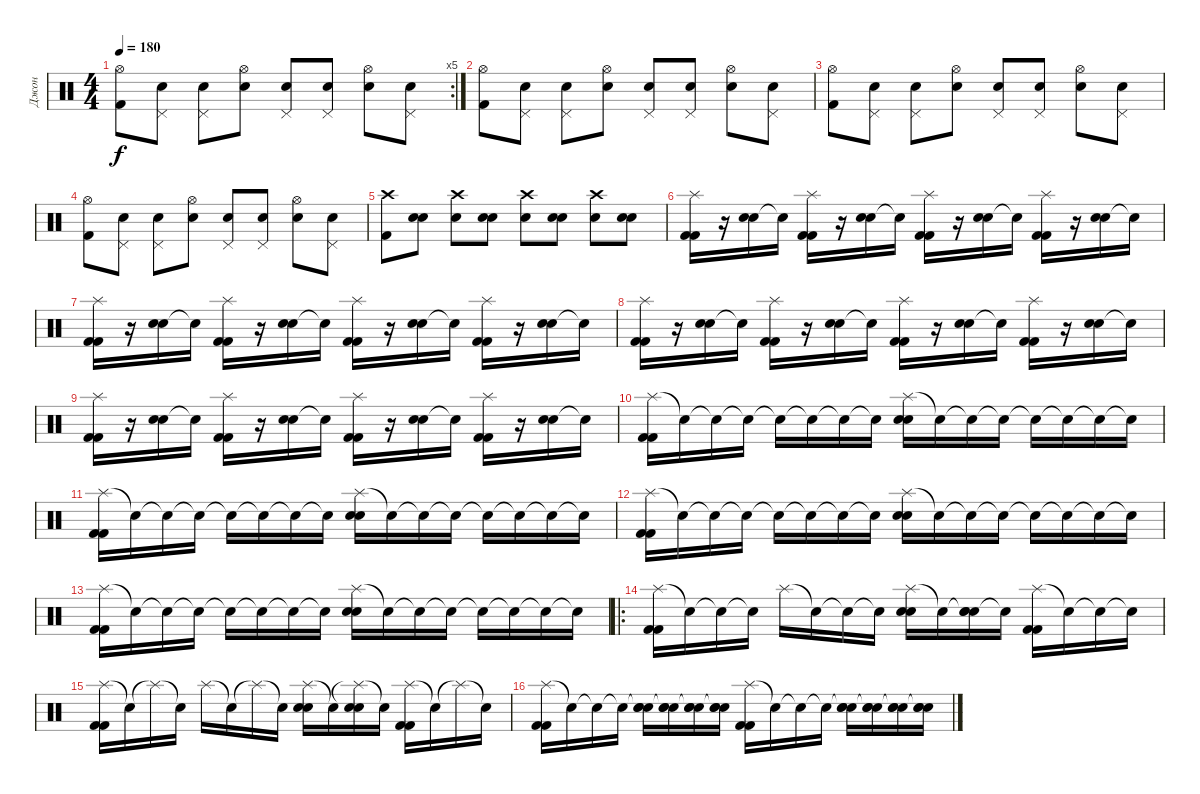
\track ("Джон" "Джон") {instrument percussion}
\staff {score}
\articulation defaults
\rc 5
\ts (4 4)
\tempo 180
\clef neutral
\ks c
("Kick (hit) 2" "Hi-Hat (open)").8{dy f} ("Snare (hit)" "Pedal Hi-Hat (hit)").8 ("Snare (hit)" "Pedal Hi-Hat (hit)").8 ("Snare (hit)" "Hi-Hat (open)").8 ("Electric Snare (hit)" "Pedal Hi-Hat (hit)").8 ("Snare (hit)" "Pedal Hi-Hat (hit)").8 ("Snare (hit)" "Hi-Hat (open)").8 ("Snare (hit)" "Pedal Hi-Hat (hit)").8 |
("Kick (hit) 2" "Hi-Hat (open)").8 ("Snare (hit)" "Pedal Hi-Hat (hit)").8 ("Snare (hit)" "Pedal Hi-Hat (hit)").8 ("Snare (hit)" "Hi-Hat (open)").8 ("Electric Snare (hit)" "Pedal Hi-Hat (hit)").8 ("Snare (hit)" "Pedal Hi-Hat (hit)").8 ("Snare (hit)" "Hi-Hat (open)").8 ("Snare (hit)" "Pedal Hi-Hat (hit)").8 |
("Kick (hit) 2" "Hi-Hat (open)").8 ("Snare (hit)" "Pedal Hi-Hat (hit)").8 ("Snare (hit)" "Pedal Hi-Hat (hit)").8 ("Snare (hit)" "Hi-Hat (open)").8 ("Electric Snare (hit)" "Pedal Hi-Hat (hit)").8 ("Snare (hit)" "Pedal Hi-Hat (hit)").8 ("Snare (hit)" "Hi-Hat (open)").8 ("Snare (hit)" "Pedal Hi-Hat (hit)").8 |
("Kick (hit) 2" "Hi-Hat (open)").8 ("Snare (hit)" "Pedal Hi-Hat (hit)").8 ("Snare (hit)" "Pedal Hi-Hat (hit)").8 ("Snare (hit)" "Hi-Hat (open)").8 ("Electric Snare (hit)" "Pedal Hi-Hat (hit)").8 ("Snare (hit)" "Pedal Hi-Hat (hit)").8 ("Snare (hit)" "Hi-Hat (open)").8 ("Snare (hit)" "Pedal Hi-Hat (hit)").8 |
("Kick (hit) 2" "Crash high (hit)").8 ("Snare (hit)" "Snare (hit)").8 ("Snare (hit)" "Crash high (hit)").8 ("Snare (hit)" "Snare (hit)").8 ("Electric Snare (hit)" "Crash high (hit)").8 ("Snare (hit)" "Snare (hit)").8 ("Snare (hit)" "Crash high (hit)").8 ("Snare (hit)" "Snare (hit)").8 |
("Splash (hit)" "Kick (hit) 2" "Kick (hit) 2").16 r.16 ("Electric Snare (hit)" "Electric Snare (hit)").16 "Snare (hit)"{t}.16 ("Splash (hit)" "Kick (hit) 2" "Kick (hit) 2").16 r.16 ("Electric Snare (hit)" "Electric Snare (hit)").16 "Snare (hit)"{t}.16 ("Splash (hit)" "Kick (hit) 2" "Kick (hit) 2").16 r.16 ("Electric Snare (hit)" "Electric Snare (hit)").16 "Snare (hit)"{t}.16 ("Splash (hit)" "Kick (hit) 2" "Kick (hit) 2").16 r.16 ("Electric Snare (hit)" "Electric Snare (hit)").16 "Snare (hit)"{t}.16 |
("Splash (hit)" "Kick (hit) 2" "Kick (hit) 2").16 r.16 ("Electric Snare (hit)" "Electric Snare (hit)").16 "Snare (hit)"{t}.16 ("Splash (hit)" "Kick (hit) 2" "Kick (hit) 2").16 r.16 ("Electric Snare (hit)" "Electric Snare (hit)").16 "Snare (hit)"{t}.16 ("Splash (hit)" "Kick (hit) 2" "Kick (hit) 2").16 r.16 ("Electric Snare (hit)" "Electric Snare (hit)").16 "Snare (hit)"{t}.16 ("Splash (hit)" "Kick (hit) 2" "Kick (hit) 2").16 r.16 ("Electric Snare (hit)" "Electric Snare (hit)").16 "Snare (hit)"{t}.16 |
("Splash (hit)" "Kick (hit) 2" "Kick (hit) 2").16 r.16 ("Electric Snare (hit)" "Electric Snare (hit)").16 "Snare (hit)"{t}.16 ("Splash (hit)" "Kick (hit) 2" "Kick (hit) 2").16 r.16 ("Electric Snare (hit)" "Electric Snare (hit)").16 "Snare (hit)"{t}.16 ("Splash (hit)" "Kick (hit) 2" "Kick (hit) 2").16 r.16 ("Electric Snare (hit)" "Electric Snare (hit)").16 "Snare (hit)"{t}.16 ("Splash (hit)" "Kick (hit) 2" "Kick (hit) 2").16 r.16 ("Electric Snare (hit)" "Electric Snare (hit)").16 "Snare (hit)"{t}.16 |
("Splash (hit)" "Kick (hit) 2" "Kick (hit) 2").16 r.16 ("Electric Snare (hit)" "Electric Snare (hit)").16 "Snare (hit)"{t}.16 ("Splash (hit)" "Kick (hit) 2" "Kick (hit) 2").16 r.16 ("Electric Snare (hit)" "Electric Snare (hit)").16 "Snare (hit)"{t}.16 ("Splash (hit)" "Kick (hit) 2" "Kick (hit) 2").16 r.16 ("Electric Snare (hit)" "Electric Snare (hit)").16 "Snare (hit)"{t}.16 ("Splash (hit)" "Kick (hit) 2" "Kick (hit) 2").16 r.16 ("Electric Snare (hit)" "Electric Snare (hit)").16 "Snare (hit)"{t}.16 |
("Splash (hit)" "Kick (hit) 2" "Kick (hit) 2").16 "Snare (hit)"{t}.16 "Snare (hit)"{t}.16 "Snare (hit)"{t}.16 "Snare (hit)"{t}.16 "Snare (hit)"{t}.16 "Snare (hit)"{t}.16 "Snare (hit)"{t}.16 ("Splash (hit)" "Electric Snare (hit)" "Electric Snare (hit)").16 "Snare (hit)"{t}.16 "Snare (hit)"{t}.16 "Snare (hit)"{t}.16 "Snare (hit)"{t}.16 "Snare (hit)"{t}.16 "Snare (hit)"{t}.16 "Snare (hit)"{t}.16 |
("Splash (hit)" "Kick (hit) 2" "Kick (hit) 2").16 "Snare (hit)"{t}.16 "Snare (hit)"{t}.16 "Snare (hit)"{t}.16 "Snare (hit)"{t}.16 "Snare (hit)"{t}.16 "Snare (hit)"{t}.16 "Snare (hit)"{t}.16 ("Splash (hit)" "Electric Snare (hit)" "Electric Snare (hit)").16 "Snare (hit)"{t}.16 "Snare (hit)"{t}.16 "Snare (hit)"{t}.16 "Snare (hit)"{t}.16 "Snare (hit)"{t}.16 "Snare (hit)"{t}.16 "Snare (hit)"{t}.16 |
("Splash (hit)" "Kick (hit) 2" "Kick (hit) 2").16 "Snare (hit)"{t}.16 "Snare (hit)"{t}.16 "Snare (hit)"{t}.16 "Snare (hit)"{t}.16 "Snare (hit)"{t}.16 "Snare (hit)"{t}.16 "Snare (hit)"{t}.16 ("Splash (hit)" "Electric Snare (hit)" "Electric Snare (hit)").16 "Snare (hit)"{t}.16 "Snare (hit)"{t}.16 "Snare (hit)"{t}.16 "Snare (hit)"{t}.16 "Snare (hit)"{t}.16 "Snare (hit)"{t}.16 "Snare (hit)"{t}.16 |
("Splash (hit)" "Kick (hit) 2" "Kick (hit) 2").16 "Snare (hit)"{t}.16 "Snare (hit)"{t}.16 "Snare (hit)"{t}.16 "Snare (hit)"{t}.16 "Snare (hit)"{t}.16 "Snare (hit)"{t}.16 "Snare (hit)"{t}.16 ("Splash (hit)" "Electric Snare (hit)" "Electric Snare (hit)").16 "Snare (hit)"{t}.16 "Snare (hit)"{t}.16 "Snare (hit)"{t}.16 "Snare (hit)"{t}.16 "Snare (hit)"{t}.16 "Snare (hit)"{t}.16 "Snare (hit)"{t}.16 |
\ro
("Splash (hit)" "Kick (hit) 2" "Kick (hit) 2").16 "Snare (hit)"{t}.16 "Snare (hit)"{t}.16 "Snare (hit)"{t}.16 "Splash (hit)".16 "Snare (hit)"{t}.16 "Snare (hit)"{t}.16 "Snare (hit)"{t}.16 ("Splash (hit)" "Electric Snare (hit)" "Electric Snare (hit)").16 "Snare (hit)"{t}.16 ("Snare (hit)"{t} "Electric Snare (hit)" "Electric Snare (hit)").16 "Snare (hit)"{t}.16 ("Splash (hit)" "Kick (hit) 2" "Kick (hit) 2").16 "Snare (hit)"{t}.16 "Snare (hit)"{t}.16 "Snare (hit)"{t}.16 |
("Splash (hit)" "Kick (hit) 2" "Kick (hit) 2").16 "Snare (hit)"{t}.16 "Splash (hit)"{t}.16 "Snare (hit)"{t}.16 "Splash (hit)".16 "Snare (hit)"{t}.16 "Splash (hit)"{t}.16 "Snare (hit)"{t}.16 ("Splash (hit)" "Electric Snare (hit)" "Electric Snare (hit)").16 "Snare (hit)"{t}.16 ("Splash (hit)"{t} "Electric Snare (hit)" "Electric Snare (hit)").16 "Snare (hit)"{t}.16 ("Splash (hit)" "Kick (hit) 2" "Kick (hit) 2").16 "Snare (hit)"{t}.16 "Splash (hit)"{t}.16 "Snare (hit)"{t}.16 |
("Splash (hit)" "Kick (hit) 2" "Kick (hit) 2").16 "Snare (hit)"{t}.16 "Snare (hit)"{t}.16 "Snare (hit)"{t}.16 ("Snare (hit)"{t} "Electric Snare (hit)" "Electric Snare (hit)").16 ("Snare (hit)"{t} "Electric Snare (hit)" "Electric Snare (hit)").16 ("Snare (hit)"{t} "Electric Snare (hit)" "Electric Snare (hit)").16 ("Snare (hit)"{t} "Electric Snare (hit)" "Electric Snare (hit)").16 ("Splash (hit)" "Kick (hit) 2" "Kick (hit) 2").16 "Snare (hit)"{t}.16 "Snare (hit)"{t}.16 "Snare (hit)"{t}.16 ("Snare (hit)"{t} "Electric Snare (hit)" "Electric Snare (hit)").16 ("Snare (hit)"{t} "Electric Snare (hit)" "Electric Snare (hit)").16 ("Snare (hit)"{t} "Electric Snare (hit)" "Electric Snare (hit)").16 ("Snare (hit)"{t} "Electric Snare (hit)" "Electric Snare (hit)").16
